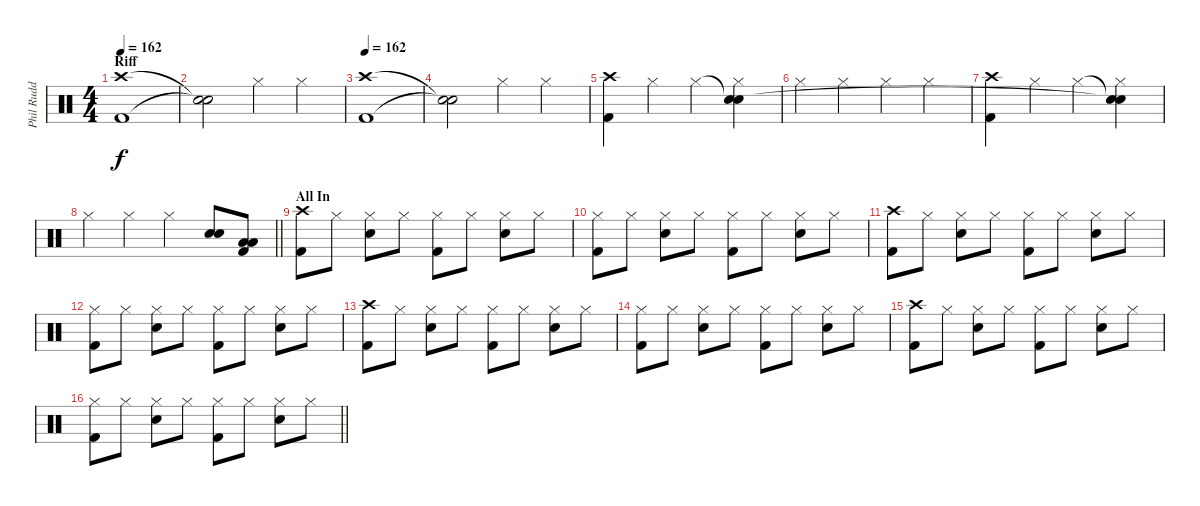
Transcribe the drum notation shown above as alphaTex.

\track ("Phil Rudd" "Phil Rudd") {instrument percussion}
\staff {score}
\articulation defaults
\ts (4 4)
\section ("" "Riff")
\tempo 162
\clef neutral
\ks c
("Crash high (hit)" "Kick (hit) 2").1{dy f} |
("Snare (hit)"{t} "Snare (hit)"{t}).2 "Hi-Hat (closed)".4 "Hi-Hat (closed)".4 |
\tempo 162
("Crash high (hit)" "Kick (hit) 2").1 |
("Snare (hit)"{t} "Snare (hit)"{t}).2 "Hi-Hat (closed)".4 "Hi-Hat (closed)".4 |
("Crash high (hit)" "Kick (hit) 2").4 "Hi-Hat (closed)".4 "Hi-Hat (closed)".4 ("Snare (hit)"{t} "Hi-Hat (closed)" "Snare (hit)").4 |
"Hi-Hat (closed)".4 "Hi-Hat (closed)".4 "Hi-Hat (closed)".4 "Hi-Hat (closed)".4 |
("Crash high (hit)" "Kick (hit) 2").4 "Hi-Hat (closed)".4 "Hi-Hat (closed)".4 ("Snare (hit)"{t} "Hi-Hat (closed)" "Snare (hit)"{t}).4 |
\barLineRight lightlight "Hi-Hat (closed)".4 "Hi-Hat (closed)".4 "Hi-Hat (closed)".4
("Snare (hit) 2" "Snare (hit) 2").8 ("Low Tom (hit)" "Low Tom (hit)" "Kick (hit) 2").8 |
\section ("" "All In")
("Crash high (hit)" "Kick (hit) 2").8 "Hi-Hat (closed)".8 ("Hi-Hat (closed)" "Snare (hit) 2").8 "Hi-Hat (closed)".8 ("Hi-Hat (closed)" "Kick (hit) 2").8 "Hi-Hat (closed)".8 ("Hi-Hat (closed)" "Snare (hit) 2").8 "Hi-Hat (closed)".8 |
("Hi-Hat (closed)" "Kick (hit) 2").8 "Hi-Hat (closed)".8 ("Hi-Hat (closed)" "Snare (hit) 2").8 "Hi-Hat (closed)".8 ("Hi-Hat (closed)" "Kick (hit) 2").8 "Hi-Hat (closed)".8 ("Hi-Hat (closed)" "Snare (hit) 2").8 "Hi-Hat (closed)".8 |
("Crash high (hit)" "Kick (hit) 2").8 "Hi-Hat (closed)".8 ("Hi-Hat (closed)" "Snare (hit) 2").8 "Hi-Hat (closed)".8 ("Hi-Hat (closed)" "Kick (hit) 2").8 "Hi-Hat (closed)".8 ("Hi-Hat (closed)" "Snare (hit) 2").8 "Hi-Hat (closed)".8 |
("Hi-Hat (closed)" "Kick (hit) 2").8 "Hi-Hat (closed)".8 ("Hi-Hat (closed)" "Snare (hit) 2").8 "Hi-Hat (closed)".8 ("Hi-Hat (closed)" "Kick (hit) 2").8 "Hi-Hat (closed)".8 ("Hi-Hat (closed)" "Snare (hit) 2").8 "Hi-Hat (closed)".8 |
("Crash high (hit)" "Kick (hit) 2").8 "Hi-Hat (closed)".8 ("Hi-Hat (closed)" "Snare (hit) 2").8 "Hi-Hat (closed)".8 ("Hi-Hat (closed)" "Kick (hit) 2").8 "Hi-Hat (closed)".8 ("Hi-Hat (closed)" "Snare (hit) 2").8 "Hi-Hat (closed)".8 |
("Hi-Hat (closed)" "Kick (hit) 2").8 "Hi-Hat (closed)".8 ("Hi-Hat (closed)" "Snare (hit) 2").8 "Hi-Hat (closed)".8 ("Hi-Hat (closed)" "Kick (hit) 2").8 "Hi-Hat (closed)".8 ("Hi-Hat (closed)" "Snare (hit) 2").8 "Hi-Hat (closed)".8 |
("Crash high (hit)" "Kick (hit) 2").8 "Hi-Hat (closed)".8 ("Hi-Hat (closed)" "Snare (hit) 2").8 "Hi-Hat (closed)".8 ("Hi-Hat (closed)" "Kick (hit) 2").8 "Hi-Hat (closed)".8 ("Hi-Hat (closed)" "Snare (hit) 2").8 "Hi-Hat (closed)".8 |
\barLineRight lightlight
("Hi-Hat (closed)" "Kick (hit) 2").8 "Hi-Hat (closed)".8 ("Hi-Hat (closed)" "Snare (hit) 2").8 "Hi-Hat (closed)".8 ("Hi-Hat (closed)" "Kick (hit) 2").8 "Hi-Hat (closed)".8 ("Hi-Hat (closed)" "Snare (hit) 2").8 "Hi-Hat (closed)".8
